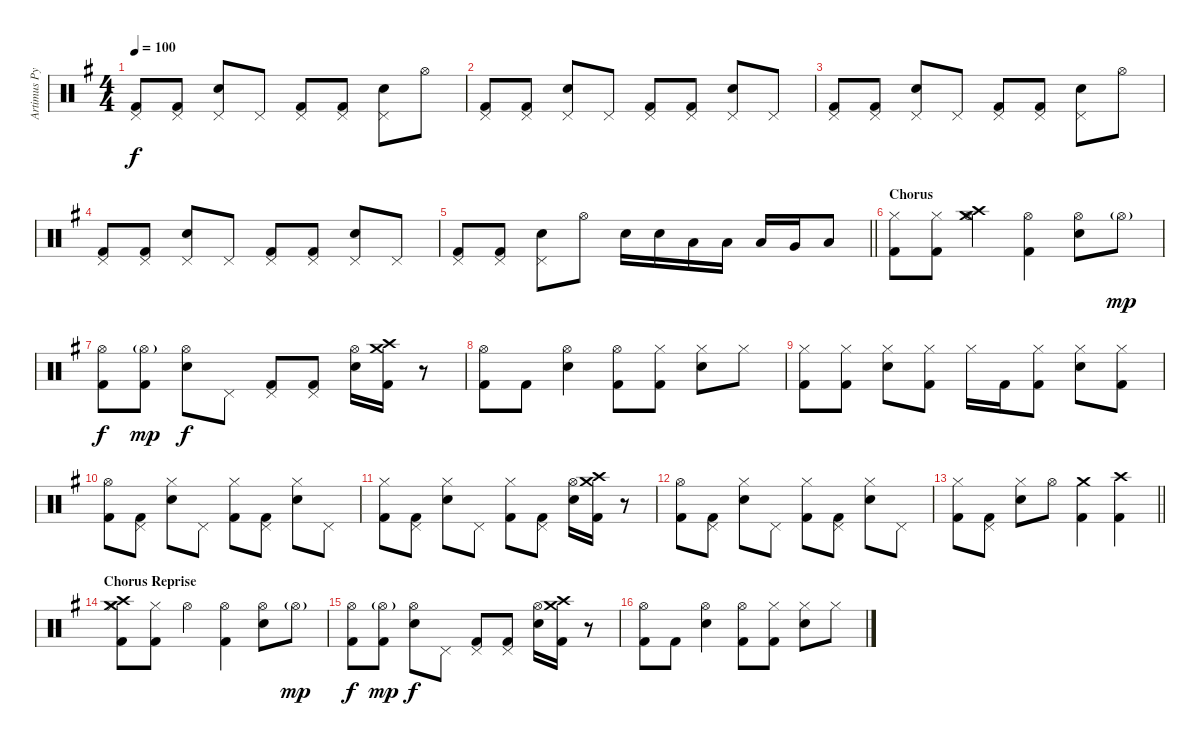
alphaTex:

\track ("Artimus Pyle" "Artimus Py") {instrument percussion}
\staff {score}
\articulation defaults
\ts (4 4)
\tempo 100
\clef neutral
\ks g
("Pedal Hi-Hat (hit)" "Kick (hit) 2").8{dy f} ("Pedal Hi-Hat (hit)" "Kick (hit) 2").8 ("Snare (hit) 2" "Pedal Hi-Hat (hit)").8 "Pedal Hi-Hat (hit)".8 ("Pedal Hi-Hat (hit)" "Kick (hit) 2").8 ("Pedal Hi-Hat (hit)" "Kick (hit) 2").8 ("Snare (hit) 2" "Pedal Hi-Hat (hit)").8 "Hi-Hat (open)".8 |
("Pedal Hi-Hat (hit)" "Kick (hit) 2").8 ("Pedal Hi-Hat (hit)" "Kick (hit) 2").8 ("Snare (hit) 2" "Pedal Hi-Hat (hit)").8 "Pedal Hi-Hat (hit)".8 ("Pedal Hi-Hat (hit)" "Kick (hit) 2").8 ("Pedal Hi-Hat (hit)" "Kick (hit) 2").8 ("Snare (hit) 2" "Pedal Hi-Hat (hit)").8 "Pedal Hi-Hat (hit)".8 |
("Pedal Hi-Hat (hit)" "Kick (hit) 2").8 ("Pedal Hi-Hat (hit)" "Kick (hit) 2").8 ("Snare (hit) 2" "Pedal Hi-Hat (hit)").8 "Pedal Hi-Hat (hit)".8 ("Pedal Hi-Hat (hit)" "Kick (hit) 2").8 ("Pedal Hi-Hat (hit)" "Kick (hit) 2").8 ("Snare (hit) 2" "Pedal Hi-Hat (hit)").8 "Hi-Hat (open)".8 |
("Pedal Hi-Hat (hit)" "Kick (hit) 2").8 ("Pedal Hi-Hat (hit)" "Kick (hit) 2").8 ("Snare (hit) 2" "Pedal Hi-Hat (hit)").8 "Pedal Hi-Hat (hit)".8 ("Pedal Hi-Hat (hit)" "Kick (hit) 2").8 ("Pedal Hi-Hat (hit)" "Kick (hit) 2").8 ("Snare (hit) 2" "Pedal Hi-Hat (hit)").8 "Pedal Hi-Hat (hit)".8 |
\barLineRight lightlight
("Pedal Hi-Hat (hit)" "Kick (hit) 2").8 ("Pedal Hi-Hat (hit)" "Kick (hit) 2").8 ("Snare (hit) 2" "Pedal Hi-Hat (hit)").8 "Hi-Hat (open)".8 "Snare (hit) 2".16 "Snare (hit) 2".16 "Low Tom (hit)".16 "Low Tom (hit)".16 "Low Tom (hit)".16 "Very Low Tom (hit)".16 "Low Floor Tom (hit)".8 |
\section ("" "Chorus")
("Hi-Hat (closed)" "Kick (hit) 2").8 ("Hi-Hat (closed)" "Kick (hit) 2").8 ("Crash medium (hit)" "Crash high (hit)" "Hi-Hat (open)").4 ("Hi-Hat (open)" "Kick (hit) 2").4 ("Snare (hit) 2" "Hi-Hat (open)").8 "Hi-Hat (open)"{g}.8{dy mp} |
("Hi-Hat (open)" "Kick (hit) 2").8{dy f} ("Hi-Hat (open)"{g} "Kick (hit) 2").8{dy mp} ("Snare (hit) 2" "Hi-Hat (open)").8{dy f} "Pedal Hi-Hat (hit)".8 ("Pedal Hi-Hat (hit)" "Kick (hit) 2").8 ("Pedal Hi-Hat (hit)" "Kick (hit) 2").8 ("Snare (hit) 2" "Hi-Hat (open)").16 ("Crash medium (hit)" "Crash high (hit)" "Kick (hit) 2").16 r.8 |
("Hi-Hat (open)" "Kick (hit) 2").8 "Kick (hit) 2".8 ("Snare (hit) 2" "Hi-Hat (open)").4 ("Hi-Hat (open)" "Kick (hit) 2").8 ("Hi-Hat (closed)" "Kick (hit) 2").8 ("Snare (hit) 2" "Hi-Hat (closed)").8 "Hi-Hat (closed)".8 |
("Hi-Hat (closed)" "Kick (hit) 2").8 ("Hi-Hat (closed)" "Kick (hit) 2").8 ("Snare (hit) 2" "Hi-Hat (closed)").8 ("Hi-Hat (closed)" "Kick (hit) 2").8 "Hi-Hat (closed)".16 "Kick (hit) 2".16 ("Hi-Hat (closed)" "Kick (hit) 2").8 ("Snare (hit) 2" "Hi-Hat (closed)").8 ("Hi-Hat (closed)" "Kick (hit) 2").8 |
("Hi-Hat (open)" "Kick (hit) 2").8 ("Pedal Hi-Hat (hit)" "Kick (hit) 2").8 ("Snare (hit) 2" "Hi-Hat (closed)").8 "Pedal Hi-Hat (hit)".8 ("Hi-Hat (closed)" "Kick (hit) 2").8 ("Pedal Hi-Hat (hit)" "Kick (hit) 2").8 ("Snare (hit) 2" "Hi-Hat (closed)").8 "Pedal Hi-Hat (hit)".8 |
("Hi-Hat (closed)" "Kick (hit) 2").8 ("Pedal Hi-Hat (hit)" "Kick (hit) 2").8 ("Snare (hit) 2" "Hi-Hat (closed)").8 "Pedal Hi-Hat (hit)".8 ("Hi-Hat (closed)" "Kick (hit) 2").8 ("Pedal Hi-Hat (hit)" "Kick (hit) 2").8 ("Snare (hit) 2" "Hi-Hat (open)").16 ("Crash medium (hit)" "Crash high (hit)" "Kick (hit) 2").16 r.8 |
("Hi-Hat (open)" "Kick (hit) 2").8 ("Pedal Hi-Hat (hit)" "Kick (hit) 2").8 ("Snare (hit) 2" "Hi-Hat (closed)").8 "Pedal Hi-Hat (hit)".8 ("Hi-Hat (closed)" "Kick (hit) 2").8 ("Pedal Hi-Hat (hit)" "Kick (hit) 2").8 ("Snare (hit) 2" "Hi-Hat (closed)").8 "Pedal Hi-Hat (hit)".8 |
\barLineRight lightlight
("Hi-Hat (closed)" "Kick (hit) 2").8 ("Pedal Hi-Hat (hit)" "Kick (hit) 2").8 ("Snare (hit) 2" "Hi-Hat (closed)").8 "Hi-Hat (open)".8 ("Crash medium (hit)" "Kick (hit) 2").4 ("Crash high (hit)" "Kick (hit) 2").4 |
\section ("" "Chorus Reprise")
("Crash medium (hit)" "Crash high (hit)" "Hi-Hat (closed)" "Kick (hit) 2").8 ("Hi-Hat (closed)" "Kick (hit) 2").8 "Hi-Hat (open)".4 ("Hi-Hat (open)" "Kick (hit) 2").4 ("Snare (hit) 2" "Hi-Hat (open)").8 "Hi-Hat (open)"{g}.8{dy mp} |
("Hi-Hat (open)" "Kick (hit) 2").8{dy f} ("Hi-Hat (open)"{g} "Kick (hit) 2").8{dy mp} ("Snare (hit) 2" "Hi-Hat (open)").8{dy f} "Pedal Hi-Hat (hit)".8 ("Pedal Hi-Hat (hit)" "Kick (hit) 2").8 ("Pedal Hi-Hat (hit)" "Kick (hit) 2").8 ("Snare (hit) 2" "Hi-Hat (open)").16 ("Crash medium (hit)" "Crash high (hit)" "Kick (hit) 2").16 r.8 |
("Hi-Hat (open)" "Kick (hit) 2").8 "Kick (hit) 2".8 ("Snare (hit) 2" "Hi-Hat (open)").4 ("Hi-Hat (open)" "Kick (hit) 2").8 ("Hi-Hat (closed)" "Kick (hit) 2").8 ("Snare (hit) 2" "Hi-Hat (closed)").8 "Hi-Hat (closed)".8
